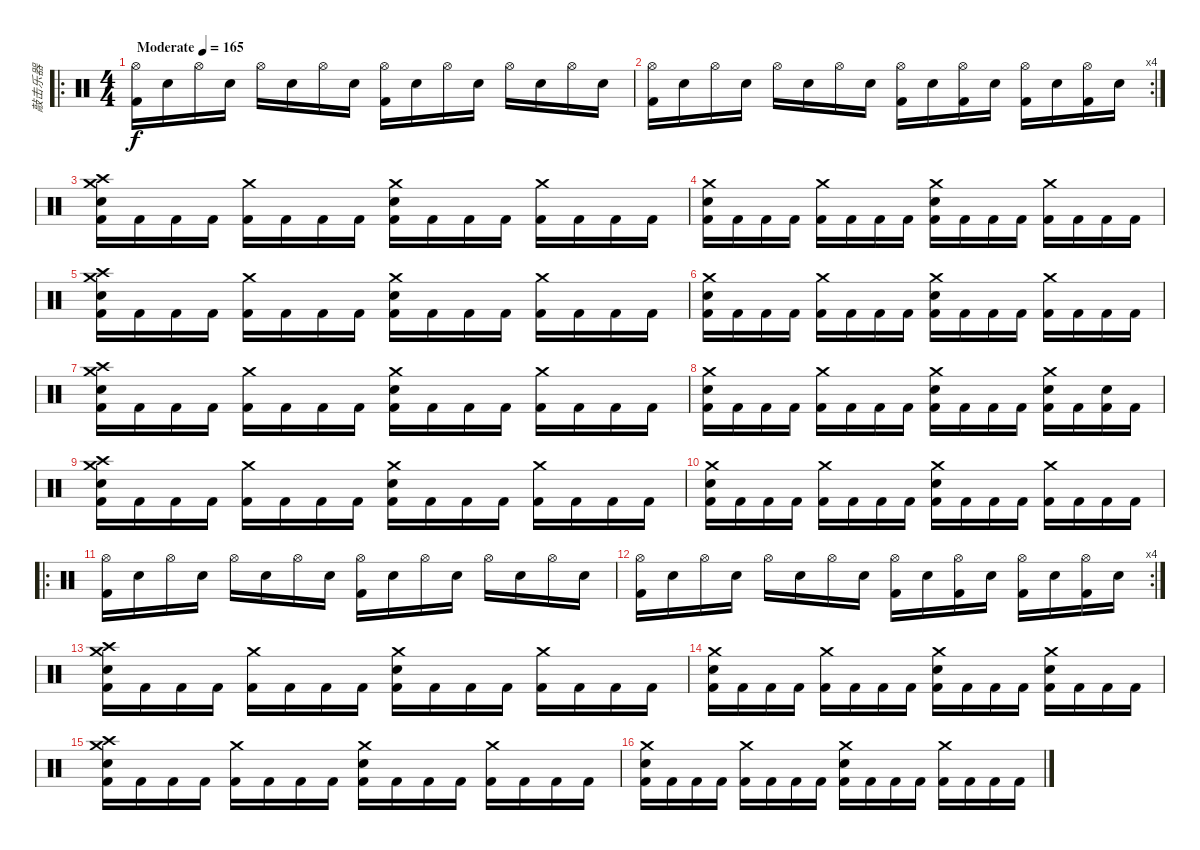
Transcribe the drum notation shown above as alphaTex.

\track ("敲击乐器" "敲击乐器") {instrument percussion}
\staff {score}
\articulation defaults
\ro
\ts (4 4)
\tempo (165 "Moderate")
\clef neutral
\ks c
("Kick (hit) 2" "Hi-Hat (open)").16{dy f} "Snare (hit) 2".16 "Hi-Hat (open)".16 "Snare (hit) 2".16 "Hi-Hat (open)".16 "Snare (hit) 2".16 "Hi-Hat (open)".16 "Snare (hit) 2".16 ("Hi-Hat (open)" "Kick (hit) 2").16 "Snare (hit) 2".16 "Hi-Hat (open)".16 "Snare (hit) 2".16 "Hi-Hat (open)".16 "Snare (hit) 2".16 "Hi-Hat (open)".16 "Snare (hit) 2".16 |
\rc 4
("Kick (hit) 2" "Hi-Hat (open)").16 "Snare (hit) 2".16 "Hi-Hat (open)".16 "Snare (hit) 2".16 "Hi-Hat (open)".16 "Snare (hit) 2".16 "Hi-Hat (open)".16 "Snare (hit) 2".16 ("Hi-Hat (open)" "Kick (hit) 2").16 "Snare (hit) 2".16 ("Hi-Hat (open)" "Kick (hit) 2").16 "Snare (hit) 2".16 ("Hi-Hat (open)" "Kick (hit) 2").16 "Snare (hit) 2".16 ("Hi-Hat (open)" "Kick (hit) 2").16 "Snare (hit) 2".16 |
("Snare (hit) 2" "Crash medium (hit)" "Kick (hit) 2" "Crash high (hit)").16 "Kick (hit) 2".16 "Kick (hit) 2".16 "Kick (hit) 2".16 ("Crash medium (hit)" "Kick (hit) 2").16 "Kick (hit) 2".16 "Kick (hit) 2".16 "Kick (hit) 2".16 ("Snare (hit) 2" "Crash medium (hit)" "Kick (hit) 2").16 "Kick (hit) 2".16 "Kick (hit) 2".16 "Kick (hit) 2".16 ("Crash medium (hit)" "Kick (hit) 2").16 "Kick (hit) 2".16 "Kick (hit) 2".16 "Kick (hit) 2".16 |
("Snare (hit) 2" "Crash medium (hit)" "Kick (hit) 2").16 "Kick (hit) 2".16 "Kick (hit) 2".16 "Kick (hit) 2".16 ("Crash medium (hit)" "Kick (hit) 2").16 "Kick (hit) 2".16 "Kick (hit) 2".16 "Kick (hit) 2".16 ("Snare (hit) 2" "Crash medium (hit)" "Kick (hit) 2").16 "Kick (hit) 2".16 "Kick (hit) 2".16 "Kick (hit) 2".16 ("Crash medium (hit)" "Kick (hit) 2").16 "Kick (hit) 2".16 "Kick (hit) 2".16 "Kick (hit) 2".16 |
("Snare (hit) 2" "Crash medium (hit)" "Kick (hit) 2" "Crash high (hit)").16 "Kick (hit) 2".16 "Kick (hit) 2".16 "Kick (hit) 2".16 ("Crash medium (hit)" "Kick (hit) 2").16 "Kick (hit) 2".16 "Kick (hit) 2".16 "Kick (hit) 2".16 ("Snare (hit) 2" "Crash medium (hit)" "Kick (hit) 2").16 "Kick (hit) 2".16 "Kick (hit) 2".16 "Kick (hit) 2".16 ("Crash medium (hit)" "Kick (hit) 2").16 "Kick (hit) 2".16 "Kick (hit) 2".16 "Kick (hit) 2".16 |
("Snare (hit) 2" "Crash medium (hit)" "Kick (hit) 2").16 "Kick (hit) 2".16 "Kick (hit) 2".16 "Kick (hit) 2".16 ("Crash medium (hit)" "Kick (hit) 2").16 "Kick (hit) 2".16 "Kick (hit) 2".16 "Kick (hit) 2".16 ("Snare (hit) 2" "Crash medium (hit)" "Kick (hit) 2").16 "Kick (hit) 2".16 "Kick (hit) 2".16 "Kick (hit) 2".16 ("Crash medium (hit)" "Kick (hit) 2").16 "Kick (hit) 2".16 "Kick (hit) 2".16 "Kick (hit) 2".16 |
("Snare (hit) 2" "Crash medium (hit)" "Kick (hit) 2" "Crash high (hit)").16 "Kick (hit) 2".16 "Kick (hit) 2".16 "Kick (hit) 2".16 ("Crash medium (hit)" "Kick (hit) 2").16 "Kick (hit) 2".16 "Kick (hit) 2".16 "Kick (hit) 2".16 ("Snare (hit) 2" "Crash medium (hit)" "Kick (hit) 2").16 "Kick (hit) 2".16 "Kick (hit) 2".16 "Kick (hit) 2".16 ("Crash medium (hit)" "Kick (hit) 2").16 "Kick (hit) 2".16 "Kick (hit) 2".16 "Kick (hit) 2".16 |
("Snare (hit) 2" "Crash medium (hit)" "Kick (hit) 2").16 "Kick (hit) 2".16 "Kick (hit) 2".16 "Kick (hit) 2".16 ("Crash medium (hit)" "Kick (hit) 2").16 "Kick (hit) 2".16 "Kick (hit) 2".16 "Kick (hit) 2".16 ("Snare (hit) 2" "Crash medium (hit)" "Kick (hit) 2").16 "Kick (hit) 2".16 "Kick (hit) 2".16 "Kick (hit) 2".16 ("Snare (hit) 2" "Crash medium (hit)" "Kick (hit) 2").16 "Kick (hit) 2".16 ("Snare (hit) 2" "Kick (hit) 2").16 "Kick (hit) 2".16 |
("Snare (hit) 2" "Crash medium (hit)" "Kick (hit) 2" "Crash high (hit)").16 "Kick (hit) 2".16 "Kick (hit) 2".16 "Kick (hit) 2".16 ("Crash medium (hit)" "Kick (hit) 2").16 "Kick (hit) 2".16 "Kick (hit) 2".16 "Kick (hit) 2".16 ("Snare (hit) 2" "Crash medium (hit)" "Kick (hit) 2").16 "Kick (hit) 2".16 "Kick (hit) 2".16 "Kick (hit) 2".16 ("Crash medium (hit)" "Kick (hit) 2").16 "Kick (hit) 2".16 "Kick (hit) 2".16 "Kick (hit) 2".16 |
("Snare (hit) 2" "Crash medium (hit)" "Kick (hit) 2").16 "Kick (hit) 2".16 "Kick (hit) 2".16 "Kick (hit) 2".16 ("Crash medium (hit)" "Kick (hit) 2").16 "Kick (hit) 2".16 "Kick (hit) 2".16 "Kick (hit) 2".16 ("Snare (hit) 2" "Crash medium (hit)" "Kick (hit) 2").16 "Kick (hit) 2".16 "Kick (hit) 2".16 "Kick (hit) 2".16 ("Crash medium (hit)" "Kick (hit) 2").16 "Kick (hit) 2".16 "Kick (hit) 2".16 "Kick (hit) 2".16 |
\ro
("Kick (hit) 2" "Hi-Hat (open)").16 "Snare (hit) 2".16 "Hi-Hat (open)".16 "Snare (hit) 2".16 "Hi-Hat (open)".16 "Snare (hit) 2".16 "Hi-Hat (open)".16 "Snare (hit) 2".16 ("Hi-Hat (open)" "Kick (hit) 2").16 "Snare (hit) 2".16 "Hi-Hat (open)".16 "Snare (hit) 2".16 "Hi-Hat (open)".16 "Snare (hit) 2".16 "Hi-Hat (open)".16 "Snare (hit) 2".16 |
\rc 4
("Kick (hit) 2" "Hi-Hat (open)").16 "Snare (hit) 2".16 "Hi-Hat (open)".16 "Snare (hit) 2".16 "Hi-Hat (open)".16 "Snare (hit) 2".16 "Hi-Hat (open)".16 "Snare (hit) 2".16 ("Hi-Hat (open)" "Kick (hit) 2").16 "Snare (hit) 2".16 ("Hi-Hat (open)" "Kick (hit) 2").16 "Snare (hit) 2".16 ("Hi-Hat (open)" "Kick (hit) 2").16 "Snare (hit) 2".16 ("Hi-Hat (open)" "Kick (hit) 2").16 "Snare (hit) 2".16 |
("Snare (hit) 2" "Crash medium (hit)" "Kick (hit) 2" "Crash high (hit)").16 "Kick (hit) 2".16 "Kick (hit) 2".16 "Kick (hit) 2".16 ("Crash medium (hit)" "Kick (hit) 2").16 "Kick (hit) 2".16 "Kick (hit) 2".16 "Kick (hit) 2".16 ("Snare (hit) 2" "Crash medium (hit)" "Kick (hit) 2").16 "Kick (hit) 2".16 "Kick (hit) 2".16 "Kick (hit) 2".16 ("Crash medium (hit)" "Kick (hit) 2").16 "Kick (hit) 2".16 "Kick (hit) 2".16 "Kick (hit) 2".16 |
("Snare (hit) 2" "Crash medium (hit)" "Kick (hit) 2").16 "Kick (hit) 2".16 "Kick (hit) 2".16 "Kick (hit) 2".16 ("Crash medium (hit)" "Kick (hit) 2").16 "Kick (hit) 2".16 "Kick (hit) 2".16 "Kick (hit) 2".16 ("Snare (hit) 2" "Crash medium (hit)" "Kick (hit) 2").16 "Kick (hit) 2".16 "Kick (hit) 2".16 "Kick (hit) 2".16 ("Snare (hit) 2" "Crash medium (hit)" "Kick (hit) 2").16 "Kick (hit) 2".16 "Kick (hit) 2".16 "Kick (hit) 2".16 |
("Snare (hit) 2" "Crash medium (hit)" "Kick (hit) 2" "Crash high (hit)").16 "Kick (hit) 2".16 "Kick (hit) 2".16 "Kick (hit) 2".16 ("Crash medium (hit)" "Kick (hit) 2").16 "Kick (hit) 2".16 "Kick (hit) 2".16 "Kick (hit) 2".16 ("Snare (hit) 2" "Crash medium (hit)" "Kick (hit) 2").16 "Kick (hit) 2".16 "Kick (hit) 2".16 "Kick (hit) 2".16 ("Crash medium (hit)" "Kick (hit) 2").16 "Kick (hit) 2".16 "Kick (hit) 2".16 "Kick (hit) 2".16 |
("Snare (hit) 2" "Crash medium (hit)" "Kick (hit) 2").16 "Kick (hit) 2".16 "Kick (hit) 2".16 "Kick (hit) 2".16 ("Crash medium (hit)" "Kick (hit) 2").16 "Kick (hit) 2".16 "Kick (hit) 2".16 "Kick (hit) 2".16 ("Snare (hit) 2" "Crash medium (hit)" "Kick (hit) 2").16 "Kick (hit) 2".16 "Kick (hit) 2".16 "Kick (hit) 2".16 ("Crash medium (hit)" "Kick (hit) 2").16 "Kick (hit) 2".16 "Kick (hit) 2".16 "Kick (hit) 2".16
